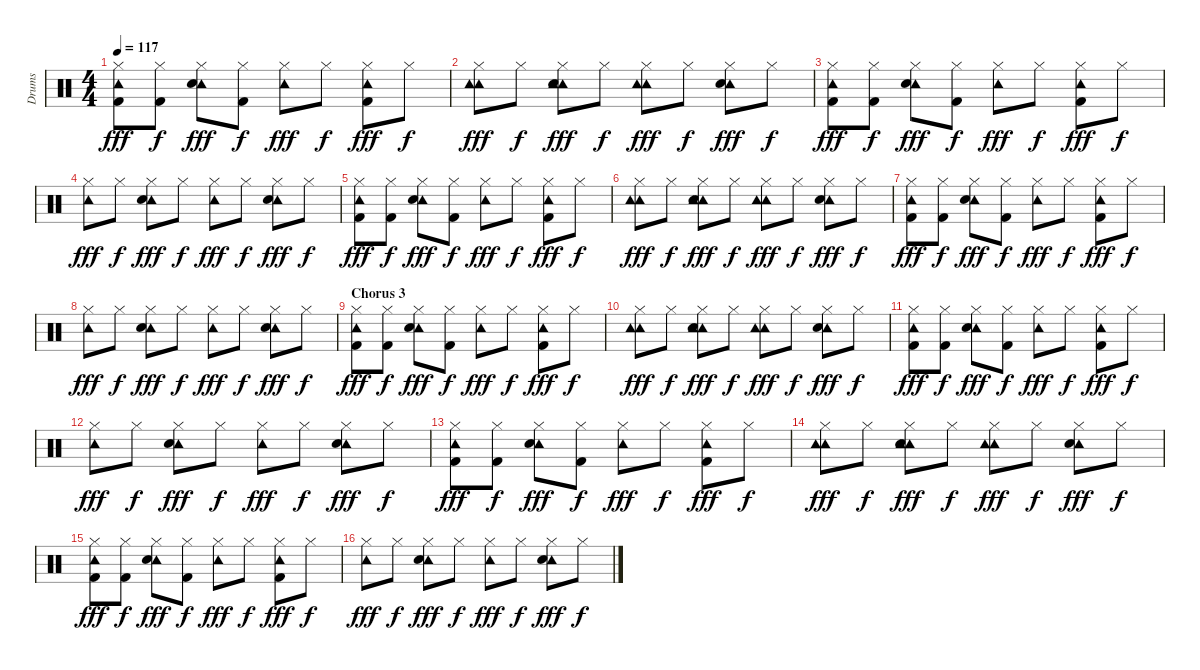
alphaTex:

\track ("Drums" "Drums") {instrument percussion}
\staff {score}
\articulation defaults
\ts (4 4)
\tempo 117
\clef neutral
\ks c
("Tambourine (hit)" "Hi-Hat (closed)" "Kick (hit) 2").8{dy fff} ("Hi-Hat (closed)" "Kick (hit) 2").8{dy f} ("Tambourine (hit)" "Hi-Hat (closed)" "Snare (hit) 2").8{dy fff} ("Hi-Hat (closed)" "Kick (hit) 2").8{dy f} ("Tambourine (hit)" "Hi-Hat (closed)").8{dy fff} "Hi-Hat (closed)".8{dy f} ("Tambourine (hit)" "Hi-Hat (closed)" "Kick (hit) 2").8{dy fff} "Hi-Hat (closed)".8{dy f} |
("Tambourine (hit)" "Tambourine (hit)" "Hi-Hat (closed)").8{dy fff} "Hi-Hat (closed)".8{dy f} ("Tambourine (hit)" "Tambourine (hit)" "Hi-Hat (closed)" "Snare (hit) 2").8{dy fff} "Hi-Hat (closed)".8{dy f} ("Tambourine (hit)" "Tambourine (hit)" "Hi-Hat (closed)").8{dy fff} "Hi-Hat (closed)".8{dy f} ("Tambourine (hit)" "Hi-Hat (closed)" "Snare (hit) 2").8{dy fff} "Hi-Hat (closed)".8{dy f} |
("Tambourine (hit)" "Hi-Hat (closed)" "Kick (hit) 2").8{dy fff} ("Hi-Hat (closed)" "Kick (hit) 2").8{dy f} ("Tambourine (hit)" "Hi-Hat (closed)" "Snare (hit) 2").8{dy fff} ("Hi-Hat (closed)" "Kick (hit) 2").8{dy f} ("Tambourine (hit)" "Hi-Hat (closed)").8{dy fff} "Hi-Hat (closed)".8{dy f} ("Tambourine (hit)" "Hi-Hat (closed)" "Kick (hit) 2").8{dy fff} "Hi-Hat (closed)".8{dy f} |
("Tambourine (hit)" "Hi-Hat (closed)").8{dy fff} "Hi-Hat (closed)".8{dy f} ("Tambourine (hit)" "Hi-Hat (closed)" "Snare (hit) 2").8{dy fff} "Hi-Hat (closed)".8{dy f} ("Tambourine (hit)" "Hi-Hat (closed)").8{dy fff} "Hi-Hat (closed)".8{dy f} ("Tambourine (hit)" "Hi-Hat (closed)" "Snare (hit) 2").8{dy fff} "Hi-Hat (closed)".8{dy f} |
("Tambourine (hit)" "Hi-Hat (closed)" "Kick (hit) 2").8{dy fff} ("Hi-Hat (closed)" "Kick (hit) 2").8{dy f} ("Tambourine (hit)" "Hi-Hat (closed)" "Snare (hit) 2").8{dy fff} ("Hi-Hat (closed)" "Kick (hit) 2").8{dy f} ("Tambourine (hit)" "Hi-Hat (closed)").8{dy fff} "Hi-Hat (closed)".8{dy f} ("Tambourine (hit)" "Hi-Hat (closed)" "Kick (hit) 2").8{dy fff} "Hi-Hat (closed)".8{dy f} |
("Tambourine (hit)" "Tambourine (hit)" "Hi-Hat (closed)").8{dy fff} "Hi-Hat (closed)".8{dy f} ("Tambourine (hit)" "Tambourine (hit)" "Hi-Hat (closed)" "Snare (hit) 2").8{dy fff} "Hi-Hat (closed)".8{dy f} ("Tambourine (hit)" "Tambourine (hit)" "Hi-Hat (closed)").8{dy fff} "Hi-Hat (closed)".8{dy f} ("Tambourine (hit)" "Hi-Hat (closed)" "Snare (hit) 2").8{dy fff} "Hi-Hat (closed)".8{dy f} |
("Tambourine (hit)" "Hi-Hat (closed)" "Kick (hit) 2").8{dy fff} ("Hi-Hat (closed)" "Kick (hit) 2").8{dy f} ("Tambourine (hit)" "Hi-Hat (closed)" "Snare (hit) 2").8{dy fff} ("Hi-Hat (closed)" "Kick (hit) 2").8{dy f} ("Tambourine (hit)" "Hi-Hat (closed)").8{dy fff} "Hi-Hat (closed)".8{dy f} ("Tambourine (hit)" "Hi-Hat (closed)" "Kick (hit) 2").8{dy fff} "Hi-Hat (closed)".8{dy f} |
("Tambourine (hit)" "Hi-Hat (closed)").8{dy fff} "Hi-Hat (closed)".8{dy f} ("Tambourine (hit)" "Hi-Hat (closed)" "Snare (hit) 2").8{dy fff} "Hi-Hat (closed)".8{dy f} ("Tambourine (hit)" "Hi-Hat (closed)").8{dy fff} "Hi-Hat (closed)".8{dy f} ("Tambourine (hit)" "Hi-Hat (closed)" "Snare (hit) 2").8{dy fff} "Hi-Hat (closed)".8{dy f} |
\section ("" "Chorus 3")
("Tambourine (hit)" "Hi-Hat (closed)" "Kick (hit) 2").8{dy fff} ("Hi-Hat (closed)" "Kick (hit) 2").8{dy f} ("Tambourine (hit)" "Hi-Hat (closed)" "Snare (hit) 2").8{dy fff} ("Hi-Hat (closed)" "Kick (hit) 2").8{dy f} ("Tambourine (hit)" "Hi-Hat (closed)").8{dy fff} "Hi-Hat (closed)".8{dy f} ("Tambourine (hit)" "Hi-Hat (closed)" "Kick (hit) 2").8{dy fff} "Hi-Hat (closed)".8{dy f} |
("Tambourine (hit)" "Tambourine (hit)" "Hi-Hat (closed)").8{dy fff} "Hi-Hat (closed)".8{dy f} ("Tambourine (hit)" "Tambourine (hit)" "Hi-Hat (closed)" "Snare (hit) 2").8{dy fff} "Hi-Hat (closed)".8{dy f} ("Tambourine (hit)" "Tambourine (hit)" "Hi-Hat (closed)").8{dy fff} "Hi-Hat (closed)".8{dy f} ("Tambourine (hit)" "Hi-Hat (closed)" "Snare (hit) 2").8{dy fff} "Hi-Hat (closed)".8{dy f} |
("Tambourine (hit)" "Hi-Hat (closed)" "Kick (hit) 2").8{dy fff} ("Hi-Hat (closed)" "Kick (hit) 2").8{dy f} ("Tambourine (hit)" "Hi-Hat (closed)" "Snare (hit) 2").8{dy fff} ("Hi-Hat (closed)" "Kick (hit) 2").8{dy f} ("Tambourine (hit)" "Hi-Hat (closed)").8{dy fff} "Hi-Hat (closed)".8{dy f} ("Tambourine (hit)" "Hi-Hat (closed)" "Kick (hit) 2").8{dy fff} "Hi-Hat (closed)".8{dy f} |
("Tambourine (hit)" "Hi-Hat (closed)").8{dy fff} "Hi-Hat (closed)".8{dy f} ("Tambourine (hit)" "Hi-Hat (closed)" "Snare (hit) 2").8{dy fff} "Hi-Hat (closed)".8{dy f} ("Tambourine (hit)" "Hi-Hat (closed)").8{dy fff} "Hi-Hat (closed)".8{dy f} ("Tambourine (hit)" "Hi-Hat (closed)" "Snare (hit) 2").8{dy fff} "Hi-Hat (closed)".8{dy f} |
("Tambourine (hit)" "Hi-Hat (closed)" "Kick (hit) 2").8{dy fff} ("Hi-Hat (closed)" "Kick (hit) 2").8{dy f} ("Tambourine (hit)" "Hi-Hat (closed)" "Snare (hit) 2").8{dy fff} ("Hi-Hat (closed)" "Kick (hit) 2").8{dy f} ("Tambourine (hit)" "Hi-Hat (closed)").8{dy fff} "Hi-Hat (closed)".8{dy f} ("Tambourine (hit)" "Hi-Hat (closed)" "Kick (hit) 2").8{dy fff} "Hi-Hat (closed)".8{dy f} |
("Tambourine (hit)" "Tambourine (hit)" "Hi-Hat (closed)").8{dy fff} "Hi-Hat (closed)".8{dy f} ("Tambourine (hit)" "Tambourine (hit)" "Hi-Hat (closed)" "Snare (hit) 2").8{dy fff} "Hi-Hat (closed)".8{dy f} ("Tambourine (hit)" "Tambourine (hit)" "Hi-Hat (closed)").8{dy fff} "Hi-Hat (closed)".8{dy f} ("Tambourine (hit)" "Hi-Hat (closed)" "Snare (hit) 2").8{dy fff} "Hi-Hat (closed)".8{dy f} |
("Tambourine (hit)" "Hi-Hat (closed)" "Kick (hit) 2").8{dy fff} ("Hi-Hat (closed)" "Kick (hit) 2").8{dy f} ("Tambourine (hit)" "Hi-Hat (closed)" "Snare (hit) 2").8{dy fff} ("Hi-Hat (closed)" "Kick (hit) 2").8{dy f} ("Tambourine (hit)" "Hi-Hat (closed)").8{dy fff} "Hi-Hat (closed)".8{dy f} ("Tambourine (hit)" "Hi-Hat (closed)" "Kick (hit) 2").8{dy fff} "Hi-Hat (closed)".8{dy f} |
("Tambourine (hit)" "Hi-Hat (closed)").8{dy fff} "Hi-Hat (closed)".8{dy f} ("Tambourine (hit)" "Hi-Hat (closed)" "Snare (hit) 2").8{dy fff} "Hi-Hat (closed)".8{dy f} ("Tambourine (hit)" "Hi-Hat (closed)").8{dy fff} "Hi-Hat (closed)".8{dy f} ("Tambourine (hit)" "Hi-Hat (closed)" "Snare (hit) 2").8{dy fff} "Hi-Hat (closed)".8{dy f}
